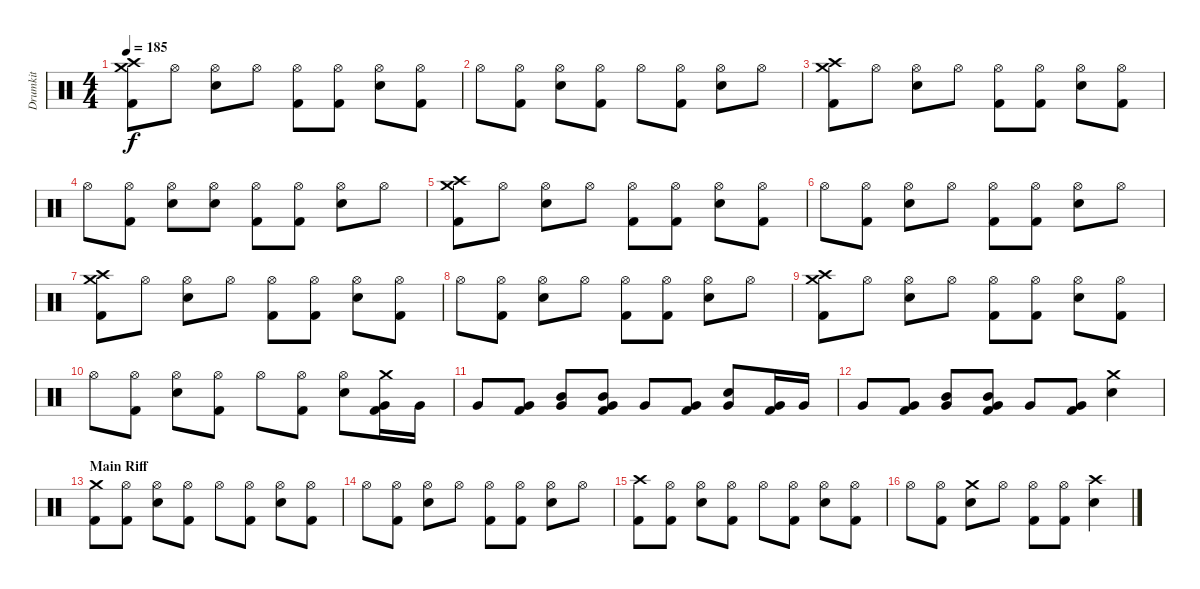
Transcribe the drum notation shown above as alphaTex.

\track ("Drumkit" "Drumkit") {instrument percussion}
\staff {score}
\articulation defaults
\ts (4 4)
\tempo 185
\clef neutral
\ks c
("Crash high (hit)" "Kick (hit) 2" "Crash medium (hit)").8{dy f} "Hi-Hat (open)".8 ("Hi-Hat (open)" "Snare (hit) 2").8 "Hi-Hat (open)".8 ("Hi-Hat (open)" "Kick (hit) 2").8 ("Hi-Hat (open)" "Kick (hit) 2").8 ("Hi-Hat (open)" "Snare (hit) 2").8 ("Hi-Hat (open)" "Kick (hit) 2").8 |
"Hi-Hat (open)".8 ("Hi-Hat (open)" "Kick (hit) 2").8 ("Hi-Hat (open)" "Snare (hit) 2").8 ("Hi-Hat (open)" "Kick (hit) 2").8 "Hi-Hat (open)".8 ("Hi-Hat (open)" "Kick (hit) 2").8 ("Hi-Hat (open)" "Snare (hit) 2").8 "Hi-Hat (open)".8 |
("Crash high (hit)" "Kick (hit) 2" "Crash medium (hit)").8 "Hi-Hat (open)".8 ("Hi-Hat (open)" "Snare (hit) 2").8 "Hi-Hat (open)".8 ("Hi-Hat (open)" "Kick (hit) 2").8 ("Hi-Hat (open)" "Kick (hit) 2").8 ("Hi-Hat (open)" "Snare (hit) 2").8 ("Hi-Hat (open)" "Kick (hit) 2").8 |
"Hi-Hat (open)".8 ("Hi-Hat (open)" "Kick (hit) 2").8 ("Hi-Hat (open)" "Snare (hit) 2").8 ("Hi-Hat (open)" "Snare (hit) 2").8 ("Hi-Hat (open)" "Kick (hit) 2").8 ("Hi-Hat (open)" "Kick (hit) 2").8 ("Hi-Hat (open)" "Snare (hit) 2").8 "Hi-Hat (open)".8 |
("Crash high (hit)" "Kick (hit) 2" "Crash medium (hit)").8 "Hi-Hat (open)".8 ("Hi-Hat (open)" "Snare (hit) 2").8 "Hi-Hat (open)".8 ("Hi-Hat (open)" "Kick (hit) 2").8 ("Hi-Hat (open)" "Kick (hit) 2").8 ("Hi-Hat (open)" "Snare (hit) 2").8 ("Hi-Hat (open)" "Kick (hit) 2").8 |
"Hi-Hat (open)".8 ("Hi-Hat (open)" "Kick (hit) 2").8 ("Hi-Hat (open)" "Snare (hit) 2").8 "Hi-Hat (open)".8 ("Hi-Hat (open)" "Kick (hit) 2").8 ("Hi-Hat (open)" "Kick (hit) 2").8 ("Hi-Hat (open)" "Snare (hit) 2").8 "Hi-Hat (open)".8 |
("Crash high (hit)" "Kick (hit) 2" "Crash medium (hit)").8 "Hi-Hat (open)".8 ("Hi-Hat (open)" "Snare (hit) 2").8 "Hi-Hat (open)".8 ("Hi-Hat (open)" "Kick (hit) 2").8 ("Hi-Hat (open)" "Kick (hit) 2").8 ("Hi-Hat (open)" "Snare (hit) 2").8 ("Hi-Hat (open)" "Kick (hit) 2").8 |
"Hi-Hat (open)".8 ("Hi-Hat (open)" "Kick (hit) 2").8 ("Hi-Hat (open)" "Snare (hit) 2").8 "Hi-Hat (open)".8 ("Hi-Hat (open)" "Kick (hit) 2").8 ("Hi-Hat (open)" "Kick (hit) 2").8 ("Hi-Hat (open)" "Snare (hit) 2").8 "Hi-Hat (open)".8 |
("Crash high (hit)" "Kick (hit) 2" "Crash medium (hit)").8 "Hi-Hat (open)".8 ("Hi-Hat (open)" "Snare (hit) 2").8 "Hi-Hat (open)".8 ("Hi-Hat (open)" "Kick (hit) 2").8 ("Hi-Hat (open)" "Kick (hit) 2").8 ("Hi-Hat (open)" "Snare (hit) 2").8 ("Hi-Hat (open)" "Kick (hit) 2").8 |
"Hi-Hat (open)".8 ("Hi-Hat (open)" "Kick (hit) 2").8 ("Hi-Hat (open)" "Snare (hit) 2").8 ("Hi-Hat (open)" "Kick (hit) 2").8 "Hi-Hat (open)".8 ("Hi-Hat (open)" "Kick (hit) 2").8 ("Hi-Hat (open)" "Snare (hit) 2").8 ("Crash medium (hit)" "Very Low Tom (hit)" "Kick (hit) 2").16 "Very Low Tom (hit)".16 |
"Very Low Tom (hit)".8 ("Very Low Tom (hit)" "Kick (hit) 2").8 ("Mid Tom (hit)" "Very Low Tom (hit)").8 ("Mid Tom (hit)" "Very Low Tom (hit)" "Kick (hit) 2").8 "Very Low Tom (hit)".8 ("Very Low Tom (hit)" "Kick (hit) 2").8 ("Very Low Tom (hit)" "Snare (hit) 2").8 ("Very Low Tom (hit)" "Kick (hit) 2").16 "Very Low Tom (hit)".16 |
"Very Low Tom (hit)".8 ("Very Low Tom (hit)" "Kick (hit) 2").8 ("Mid Tom (hit)" "Very Low Tom (hit)").8 ("Mid Tom (hit)" "Very Low Tom (hit)" "Kick (hit) 2").8 "Very Low Tom (hit)".8 ("Very Low Tom (hit)" "Kick (hit) 2").8 ("Snare (hit) 2" "Crash medium (hit)").4 |
\section ("" "Main Riff")
("Crash medium (hit)" "Kick (hit) 2").8 ("Hi-Hat (open)" "Kick (hit) 2").8 ("Hi-Hat (open)" "Snare (hit) 2").8 ("Hi-Hat (open)" "Kick (hit) 2").8 "Hi-Hat (open)".8 ("Hi-Hat (open)" "Kick (hit) 2").8 ("Hi-Hat (open)" "Snare (hit) 2").8 ("Hi-Hat (open)" "Kick (hit) 2").8 |
"Hi-Hat (open)".8 ("Hi-Hat (open)" "Kick (hit) 2").8 ("Hi-Hat (open)" "Snare (hit) 2").8 "Hi-Hat (open)".8 ("Hi-Hat (open)" "Kick (hit) 2").8 ("Hi-Hat (open)" "Kick (hit) 2").8 ("Hi-Hat (open)" "Snare (hit) 2").8 "Hi-Hat (open)".8 |
("Crash high (hit)" "Kick (hit) 2").8 ("Hi-Hat (open)" "Kick (hit) 2").8 ("Hi-Hat (open)" "Snare (hit) 2").8 ("Hi-Hat (open)" "Kick (hit) 2").8 "Hi-Hat (open)".8 ("Hi-Hat (open)" "Kick (hit) 2").8 ("Hi-Hat (open)" "Snare (hit) 2").8 ("Hi-Hat (open)" "Kick (hit) 2").8 |
"Hi-Hat (open)".8 ("Hi-Hat (open)" "Kick (hit) 2").8 ("Crash medium (hit)" "Snare (hit) 2").8 "Hi-Hat (open)".8 ("Hi-Hat (open)" "Kick (hit) 2").8 ("Hi-Hat (open)" "Kick (hit) 2").8 ("Crash high (hit)" "Snare (hit) 2").4
